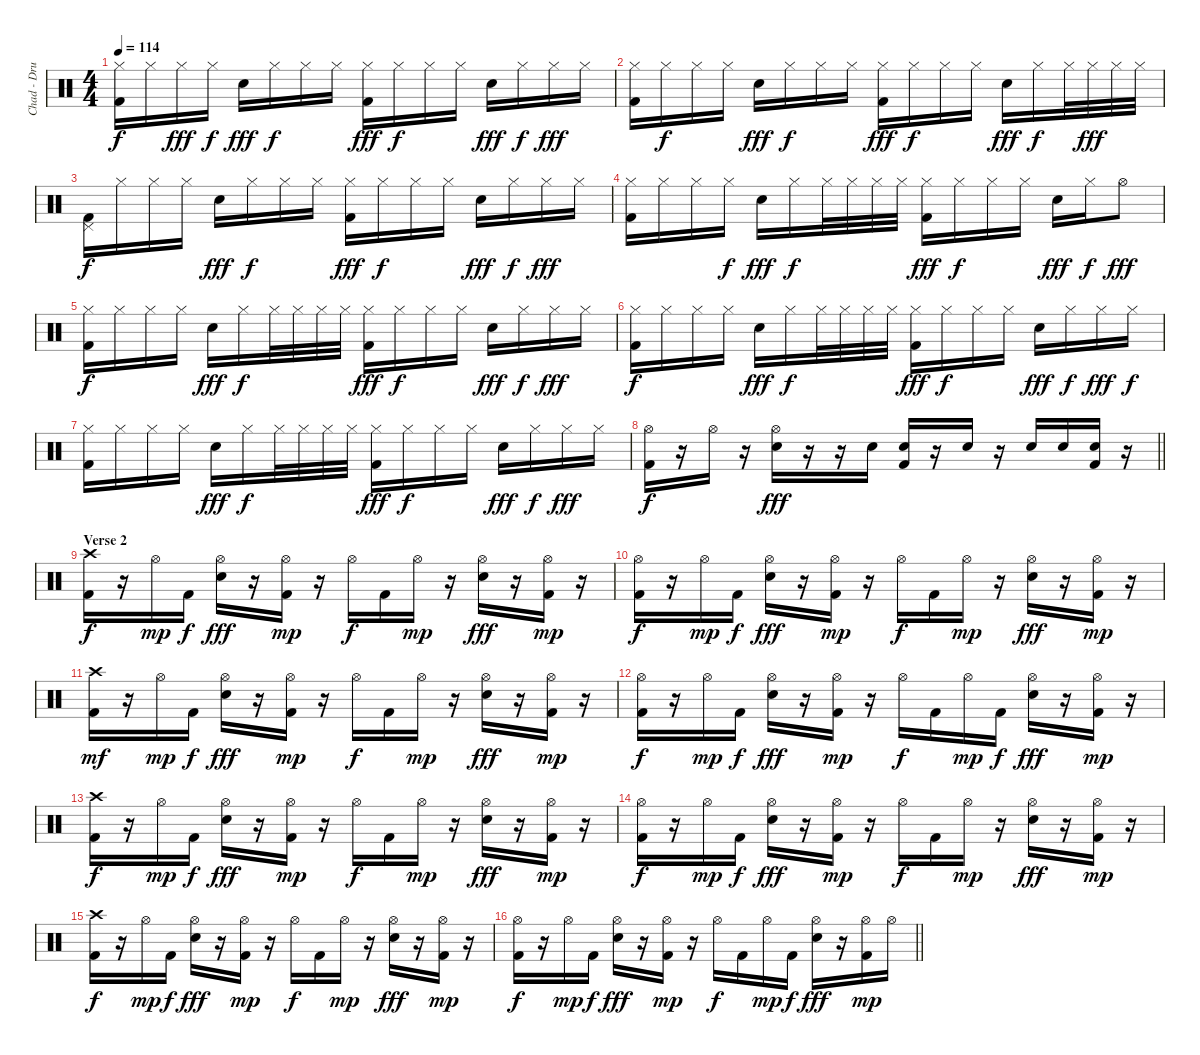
\track ("Chad - Drums" "Chad - Dru") {instrument percussion}
\staff {score}
\articulation defaults
\ts (4 4)
\tempo 114
\clef neutral
\ks c
("Hi-Hat (closed)" "Kick (hit) 2").16{dy f} "Hi-Hat (closed)".16 "Hi-Hat (closed)".16{dy fff} "Hi-Hat (closed)".16{dy f} "Electric Snare (hit)".16{dy fff} "Hi-Hat (closed)".16{dy f} "Hi-Hat (closed)".16 "Hi-Hat (closed)".16 ("Hi-Hat (closed)" "Kick (hit) 2").16{dy fff} "Hi-Hat (closed)".16{dy f} "Hi-Hat (closed)".16 "Hi-Hat (closed)".16 "Electric Snare (hit)".16{dy fff} "Hi-Hat (closed)".16{dy f} "Hi-Hat (closed)".16{dy fff} "Hi-Hat (closed)".16 |
("Hi-Hat (closed)" "Kick (hit) 2").16 "Hi-Hat (closed)".16{dy f} "Hi-Hat (closed)".16 "Hi-Hat (closed)".16 "Electric Snare (hit)".16{dy fff} "Hi-Hat (closed)".16{dy f} "Hi-Hat (closed)".16 "Hi-Hat (closed)".16 ("Hi-Hat (closed)" "Kick (hit) 2").16{dy fff} "Hi-Hat (closed)".16{dy f} "Hi-Hat (closed)".16 "Hi-Hat (closed)".16 "Electric Snare (hit)".16{dy fff} "Hi-Hat (closed)".16{dy f} "Hi-Hat (closed)".32 "Hi-Hat (closed)".32{dy fff} "Hi-Hat (closed)".32 "Hi-Hat (closed)".32 |
("Pedal Hi-Hat (hit)" "Kick (hit) 2").16{dy f} "Hi-Hat (closed)".16 "Hi-Hat (closed)".16 "Hi-Hat (closed)".16 "Electric Snare (hit)".16{dy fff} "Hi-Hat (closed)".16{dy f} "Hi-Hat (closed)".16 "Hi-Hat (closed)".16 ("Hi-Hat (closed)" "Kick (hit) 2").16{dy fff} "Hi-Hat (closed)".16{dy f} "Hi-Hat (closed)".16 "Hi-Hat (closed)".16 "Electric Snare (hit)".16{dy fff} "Hi-Hat (closed)".16{dy f} "Hi-Hat (closed)".16{dy fff} "Hi-Hat (closed)".16 |
("Hi-Hat (closed)" "Kick (hit) 2").16 "Hi-Hat (closed)".16 "Hi-Hat (closed)".16 "Hi-Hat (closed)".16{dy f} "Electric Snare (hit)".16{dy fff} "Hi-Hat (closed)".16{dy f} "Hi-Hat (closed)".32 "Hi-Hat (closed)".32 "Hi-Hat (closed)".32 "Hi-Hat (closed)".32 ("Hi-Hat (closed)" "Kick (hit) 2").16{dy fff} "Hi-Hat (closed)".16{dy f} "Hi-Hat (closed)".16 "Hi-Hat (closed)".16 "Electric Snare (hit)".16{dy fff} "Hi-Hat (closed)".16{dy f} "Hi-Hat (open)".8{dy fff} |
("Hi-Hat (closed)" "Kick (hit) 2").16{dy f} "Hi-Hat (closed)".16 "Hi-Hat (closed)".16 "Hi-Hat (closed)".16 "Electric Snare (hit)".16{dy fff} "Hi-Hat (closed)".16{dy f} "Hi-Hat (closed)".32 "Hi-Hat (closed)".32 "Hi-Hat (closed)".32 "Hi-Hat (closed)".32 ("Hi-Hat (closed)" "Kick (hit) 2").16{dy fff} "Hi-Hat (closed)".16{dy f} "Hi-Hat (closed)".16 "Hi-Hat (closed)".16 "Electric Snare (hit)".16{dy fff} "Hi-Hat (closed)".16{dy f} "Hi-Hat (closed)".16{dy fff} "Hi-Hat (closed)".16 |
("Hi-Hat (closed)" "Kick (hit) 2").16{dy f} "Hi-Hat (closed)".16 "Hi-Hat (closed)".16 "Hi-Hat (closed)".16 "Electric Snare (hit)".16{dy fff} "Hi-Hat (closed)".16{dy f} "Hi-Hat (closed)".32 "Hi-Hat (closed)".32 "Hi-Hat (closed)".32 "Hi-Hat (closed)".32 ("Hi-Hat (closed)" "Kick (hit) 2").16{dy fff} "Hi-Hat (closed)".16{dy f} "Hi-Hat (closed)".16 "Hi-Hat (closed)".16 "Electric Snare (hit)".16{dy fff} "Hi-Hat (closed)".16{dy f} "Hi-Hat (closed)".16{dy fff} "Hi-Hat (closed)".16{dy f} |
("Hi-Hat (closed)" "Kick (hit) 2").16 "Hi-Hat (closed)".16 "Hi-Hat (closed)".16 "Hi-Hat (closed)".16 "Electric Snare (hit)".16{dy fff} "Hi-Hat (closed)".16{dy f} "Hi-Hat (closed)".32 "Hi-Hat (closed)".32 "Hi-Hat (closed)".32 "Hi-Hat (closed)".32 ("Hi-Hat (closed)" "Kick (hit) 2").16{dy fff} "Hi-Hat (closed)".16{dy f} "Hi-Hat (closed)".16 "Hi-Hat (closed)".16 "Electric Snare (hit)".16{dy fff} "Hi-Hat (closed)".16{dy f} "Hi-Hat (closed)".16{dy fff} "Hi-Hat (closed)".16 |
\barLineRight lightlight
("Hi-Hat (open)" "Kick (hit) 2").16{dy f} r.16 "Hi-Hat (open)".16 r.16 ("Hi-Hat (open)" "Electric Snare (hit)").16{dy fff} r.16 r.16 "Electric Snare (hit)".16 ("Electric Snare (hit)" "Kick (hit) 2").16 r.16 "Electric Snare (hit)".16 r.16 "Electric Snare (hit)".16 "Electric Snare (hit)".16 ("Electric Snare (hit)" "Kick (hit) 2").16 r.16 |
\section ("" "Verse 2")
("Crash high (hit)" "Kick (hit) 2").16{dy f} r.16 "Hi-Hat (open)".16{dy mp} "Kick (hit) 2".16{dy f} ("Hi-Hat (open)" "Electric Snare (hit)").16{dy fff} r.16 ("Hi-Hat (open)" "Kick (hit) 2").16{dy mp} r.16 "Hi-Hat (open)".16{dy f} "Kick (hit) 2".16 "Hi-Hat (open)".16{dy mp} r.16 ("Hi-Hat (open)" "Electric Snare (hit)").16{dy fff} r.16 ("Hi-Hat (open)" "Kick (hit) 2").16{dy mp} r.16 |
("Hi-Hat (open)" "Kick (hit) 2").16{dy f} r.16 "Hi-Hat (open)".16{dy mp} "Kick (hit) 2".16{dy f} ("Hi-Hat (open)" "Electric Snare (hit)").16{dy fff} r.16 ("Hi-Hat (open)" "Kick (hit) 2").16{dy mp} r.16 "Hi-Hat (open)".16{dy f} "Kick (hit) 2".16 "Hi-Hat (open)".16{dy mp} r.16 ("Hi-Hat (open)" "Electric Snare (hit)").16{dy fff} r.16 ("Hi-Hat (open)" "Kick (hit) 2").16{dy mp} r.16 |
("Crash high (hit)" "Kick (hit) 2").16{dy mf} r.16 "Hi-Hat (open)".16{dy mp} "Kick (hit) 2".16{dy f} ("Hi-Hat (open)" "Electric Snare (hit)").16{dy fff} r.16 ("Hi-Hat (open)" "Kick (hit) 2").16{dy mp} r.16 "Hi-Hat (open)".16{dy f} "Kick (hit) 2".16 "Hi-Hat (open)".16{dy mp} r.16 ("Hi-Hat (open)" "Electric Snare (hit)").16{dy fff} r.16 ("Hi-Hat (open)" "Kick (hit) 2").16{dy mp} r.16 |
("Hi-Hat (open)" "Kick (hit) 2").16{dy f} r.16 "Hi-Hat (open)".16{dy mp} "Kick (hit) 2".16{dy f} ("Hi-Hat (open)" "Electric Snare (hit)").16{dy fff} r.16 ("Hi-Hat (open)" "Kick (hit) 2").16{dy mp} r.16 "Hi-Hat (open)".16{dy f} "Kick (hit) 2".16 "Hi-Hat (open)".16{dy mp} "Kick (hit) 2".16{dy f} ("Hi-Hat (open)" "Electric Snare (hit)").16{dy fff} r.16 ("Hi-Hat (open)" "Kick (hit) 2").16{dy mp} r.16 |
("Crash high (hit)" "Kick (hit) 2").16{dy f} r.16 "Hi-Hat (open)".16{dy mp} "Kick (hit) 2".16{dy f} ("Hi-Hat (open)" "Electric Snare (hit)").16{dy fff} r.16 ("Hi-Hat (open)" "Kick (hit) 2").16{dy mp} r.16 "Hi-Hat (open)".16{dy f} "Kick (hit) 2".16 "Hi-Hat (open)".16{dy mp} r.16 ("Hi-Hat (open)" "Electric Snare (hit)").16{dy fff} r.16 ("Hi-Hat (open)" "Kick (hit) 2").16{dy mp} r.16 |
("Hi-Hat (open)" "Kick (hit) 2").16{dy f} r.16 "Hi-Hat (open)".16{dy mp} "Kick (hit) 2".16{dy f} ("Hi-Hat (open)" "Electric Snare (hit)").16{dy fff} r.16 ("Hi-Hat (open)" "Kick (hit) 2").16{dy mp} r.16 "Hi-Hat (open)".16{dy f} "Kick (hit) 2".16 "Hi-Hat (open)".16{dy mp} r.16 ("Hi-Hat (open)" "Electric Snare (hit)").16{dy fff} r.16 ("Hi-Hat (open)" "Kick (hit) 2").16{dy mp} r.16 |
("Crash high (hit)" "Kick (hit) 2").16{dy f} r.16 "Hi-Hat (open)".16{dy mp} "Kick (hit) 2".16{dy f} ("Hi-Hat (open)" "Electric Snare (hit)").16{dy fff} r.16 ("Hi-Hat (open)" "Kick (hit) 2").16{dy mp} r.16 "Hi-Hat (open)".16{dy f} "Kick (hit) 2".16 "Hi-Hat (open)".16{dy mp} r.16 ("Hi-Hat (open)" "Electric Snare (hit)").16{dy fff} r.16 ("Hi-Hat (open)" "Kick (hit) 2").16{dy mp} r.16 |
\barLineRight lightlight
("Hi-Hat (open)" "Kick (hit) 2").16{dy f} r.16 "Hi-Hat (open)".16{dy mp} "Kick (hit) 2".16{dy f} ("Hi-Hat (open)" "Electric Snare (hit)").16{dy fff} r.16 ("Hi-Hat (open)" "Kick (hit) 2").16{dy mp} r.16 "Hi-Hat (open)".16{dy f} "Kick (hit) 2".16 "Hi-Hat (open)".16{dy mp} "Kick (hit) 2".16{dy f} ("Hi-Hat (open)" "Electric Snare (hit)").16{dy fff} r.16 ("Hi-Hat (open)" "Kick (hit) 2").16{dy mp} "Hi-Hat (open)".16
